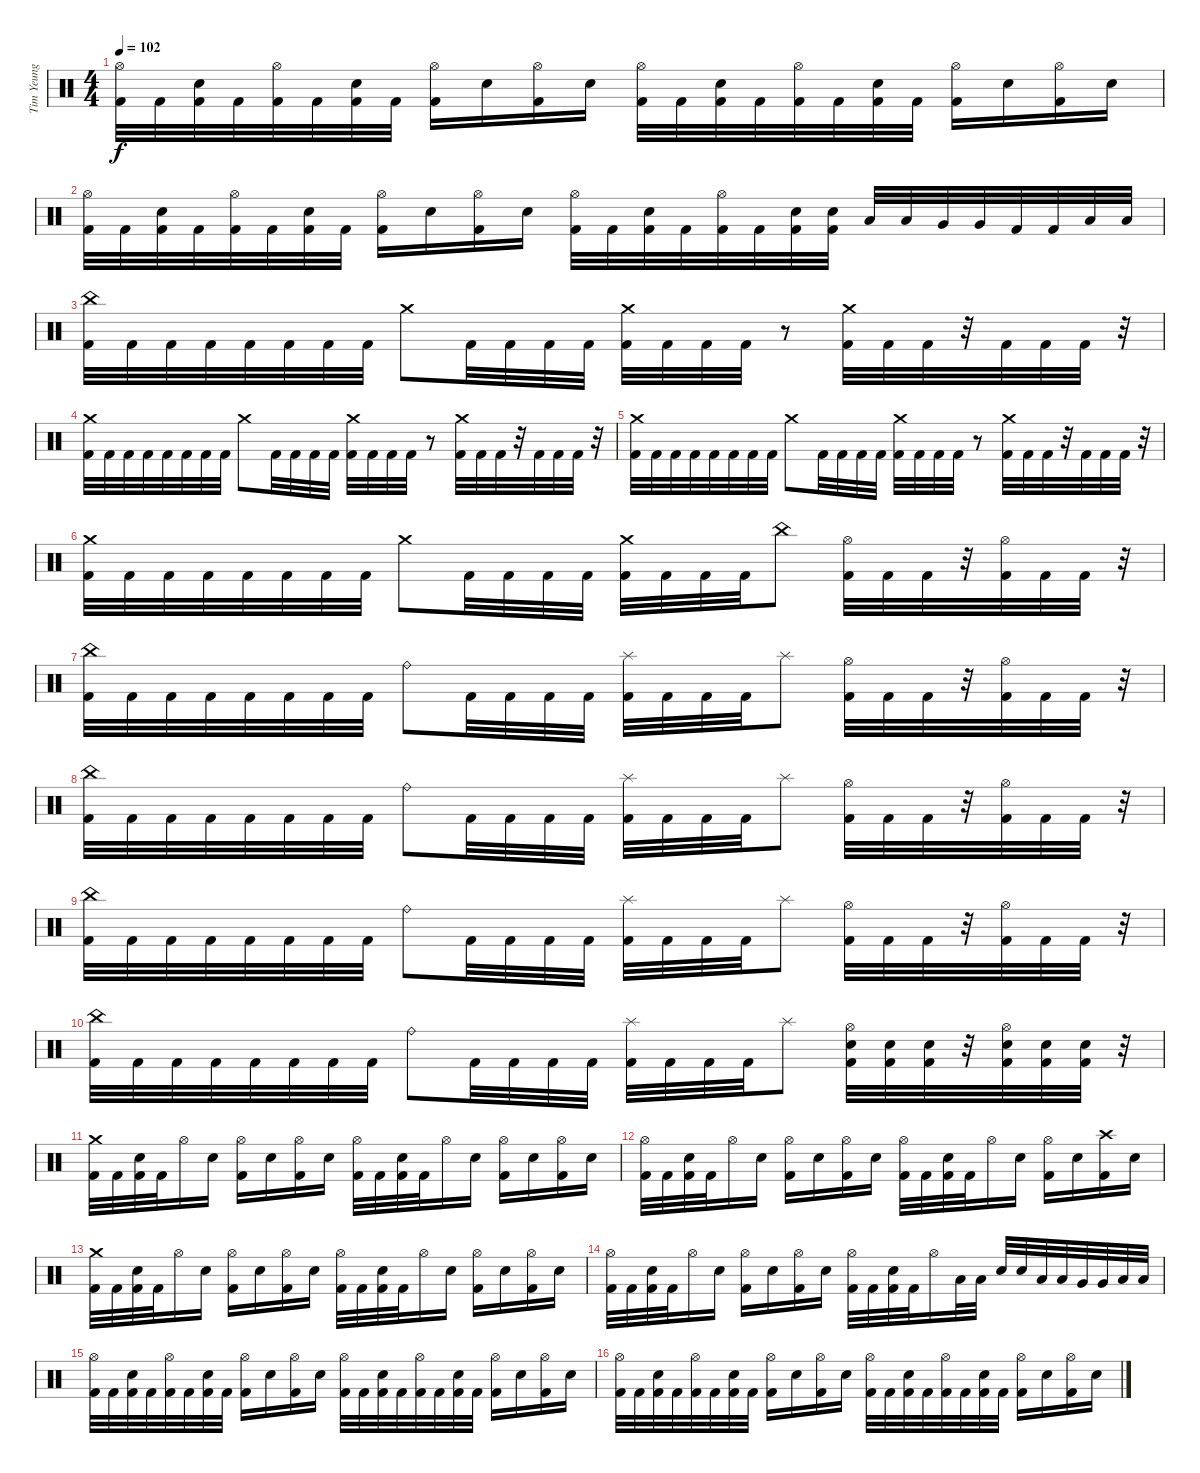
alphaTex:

\track ("Tim Yeung" "Tim Yeung") {instrument percussion}
\staff {score}
\articulation defaults
\ts (4 4)
\tempo 102
\clef neutral
\ks c
("Hi-Hat (open)" "Kick (hit) 2").32{dy f} "Kick (hit) 2".32 ("Electric Snare (hit)" "Kick (hit) 2").32 "Kick (hit) 2".32 ("Hi-Hat (open)" "Kick (hit) 2").32 "Kick (hit) 2".32 ("Electric Snare (hit)" "Kick (hit) 2").32 "Kick (hit) 2".32 ("Hi-Hat (open)" "Kick (hit) 2").16 "Electric Snare (hit)".16 ("Hi-Hat (open)" "Kick (hit) 2").16 "Electric Snare (hit)".16 ("Hi-Hat (open)" "Kick (hit) 2").32 "Kick (hit) 2".32 ("Electric Snare (hit)" "Kick (hit) 2").32 "Kick (hit) 2".32 ("Hi-Hat (open)" "Kick (hit) 2").32 "Kick (hit) 2".32 ("Electric Snare (hit)" "Kick (hit) 2").32 "Kick (hit) 2".32 ("Hi-Hat (open)" "Kick (hit) 2").16 "Electric Snare (hit)".16 ("Hi-Hat (open)" "Kick (hit) 2").16 "Electric Snare (hit)".16 |
("Hi-Hat (open)" "Kick (hit) 2").32 "Kick (hit) 2".32 ("Electric Snare (hit)" "Kick (hit) 2").32 "Kick (hit) 2".32 ("Hi-Hat (open)" "Kick (hit) 2").32 "Kick (hit) 2".32 ("Electric Snare (hit)" "Kick (hit) 2").32 "Kick (hit) 2".32 ("Hi-Hat (open)" "Kick (hit) 2").16 "Electric Snare (hit)".16 ("Hi-Hat (open)" "Kick (hit) 2").16 "Electric Snare (hit)".16 ("Hi-Hat (open)" "Kick (hit) 2").32 "Kick (hit) 2".32 ("Electric Snare (hit)" "Kick (hit) 2").32 "Kick (hit) 2".32 ("Hi-Hat (open)" "Kick (hit) 2").32 "Kick (hit) 2".32 ("Electric Snare (hit)" "Kick (hit) 2").32 ("Electric Snare (hit)" "Kick (hit) 2").32 "Low Tom (hit)".32 "Low Tom (hit)".32 "Very Low Tom (hit)".32 "Very Low Tom (hit)".32 "Kick (hit) 2".32 "Kick (hit) 2".32 "Low Floor Tom (hit)".32 "Low Floor Tom (hit)".32 |
("China (hit)" "Kick (hit) 2").32 "Kick (hit) 2".32 "Kick (hit) 2".32 "Kick (hit) 2".32 "Kick (hit) 2".32 "Kick (hit) 2".32 "Kick (hit) 2".32 "Kick (hit) 2".32 "Crash medium (hit)".8 "Kick (hit) 2".32 "Kick (hit) 2".32 "Kick (hit) 2".32 "Kick (hit) 2".32 ("Crash medium (hit)" "Kick (hit) 2").32 "Kick (hit) 2".32 "Kick (hit) 2".32 "Kick (hit) 2".32 r.8 ("Crash medium (hit)" "Kick (hit) 2").32 "Kick (hit) 2".32 "Kick (hit) 2".32 r.32 "Kick (hit) 2".32 "Kick (hit) 2".32 "Kick (hit) 2".32 r.32 |
("Crash medium (hit)" "Kick (hit) 2").32 "Kick (hit) 2".32 "Kick (hit) 2".32 "Kick (hit) 2".32 "Kick (hit) 2".32 "Kick (hit) 2".32 "Kick (hit) 2".32 "Kick (hit) 2".32 "Crash medium (hit)".8 "Kick (hit) 2".32 "Kick (hit) 2".32 "Kick (hit) 2".32 "Kick (hit) 2".32 ("Crash medium (hit)" "Kick (hit) 2").32 "Kick (hit) 2".32 "Kick (hit) 2".32 "Kick (hit) 2".32 r.8 ("Crash medium (hit)" "Kick (hit) 2").32 "Kick (hit) 2".32 "Kick (hit) 2".32 r.32 "Kick (hit) 2".32 "Kick (hit) 2".32 "Kick (hit) 2".32 r.32 |
("Crash medium (hit)" "Kick (hit) 2").32 "Kick (hit) 2".32 "Kick (hit) 2".32 "Kick (hit) 2".32 "Kick (hit) 2".32 "Kick (hit) 2".32 "Kick (hit) 2".32 "Kick (hit) 2".32 "Crash medium (hit)".8 "Kick (hit) 2".32 "Kick (hit) 2".32 "Kick (hit) 2".32 "Kick (hit) 2".32 ("Crash medium (hit)" "Kick (hit) 2").32 "Kick (hit) 2".32 "Kick (hit) 2".32 "Kick (hit) 2".32 r.8 ("Crash medium (hit)" "Kick (hit) 2").32 "Kick (hit) 2".32 "Kick (hit) 2".32 r.32 "Kick (hit) 2".32 "Kick (hit) 2".32 "Kick (hit) 2".32 r.32 |
("Crash medium (hit)" "Kick (hit) 2").32 "Kick (hit) 2".32 "Kick (hit) 2".32 "Kick (hit) 2".32 "Kick (hit) 2".32 "Kick (hit) 2".32 "Kick (hit) 2".32 "Kick (hit) 2".32 "Crash medium (hit)".8 "Kick (hit) 2".32 "Kick (hit) 2".32 "Kick (hit) 2".32 "Kick (hit) 2".32 ("Crash medium (hit)" "Kick (hit) 2").32 "Kick (hit) 2".32 "Kick (hit) 2".32 "Kick (hit) 2".32 "China (hit)".8 ("Hi-Hat (open)" "Kick (hit) 2").32 "Kick (hit) 2".32 "Kick (hit) 2".32 r.32 ("Hi-Hat (open)" "Kick (hit) 2").32 "Kick (hit) 2".32 "Kick (hit) 2".32 r.32 |
("China (hit)" "Kick (hit) 2").32 "Kick (hit) 2".32 "Kick (hit) 2".32 "Kick (hit) 2".32 "Kick (hit) 2".32 "Kick (hit) 2".32 "Kick (hit) 2".32 "Kick (hit) 2".32 "Ride (bell)".8 "Kick (hit) 2".32 "Kick (hit) 2".32 "Kick (hit) 2".32 "Kick (hit) 2".32 ("Splash (hit)" "Kick (hit) 2").32 "Kick (hit) 2".32 "Kick (hit) 2".32 "Kick (hit) 2".32 "Splash (hit)".8 ("Hi-Hat (open)" "Kick (hit) 2").32 "Kick (hit) 2".32 "Kick (hit) 2".32 r.32 ("Hi-Hat (open)" "Kick (hit) 2").32 "Kick (hit) 2".32 "Kick (hit) 2".32 r.32 |
("China (hit)" "Kick (hit) 2").32 "Kick (hit) 2".32 "Kick (hit) 2".32 "Kick (hit) 2".32 "Kick (hit) 2".32 "Kick (hit) 2".32 "Kick (hit) 2".32 "Kick (hit) 2".32 "Ride (bell)".8 "Kick (hit) 2".32 "Kick (hit) 2".32 "Kick (hit) 2".32 "Kick (hit) 2".32 ("Splash (hit)" "Kick (hit) 2").32 "Kick (hit) 2".32 "Kick (hit) 2".32 "Kick (hit) 2".32 "Splash (hit)".8 ("Hi-Hat (open)" "Kick (hit) 2").32 "Kick (hit) 2".32 "Kick (hit) 2".32 r.32 ("Hi-Hat (open)" "Kick (hit) 2").32 "Kick (hit) 2".32 "Kick (hit) 2".32 r.32 |
("China (hit)" "Kick (hit) 2").32 "Kick (hit) 2".32 "Kick (hit) 2".32 "Kick (hit) 2".32 "Kick (hit) 2".32 "Kick (hit) 2".32 "Kick (hit) 2".32 "Kick (hit) 2".32 "Ride (bell)".8 "Kick (hit) 2".32 "Kick (hit) 2".32 "Kick (hit) 2".32 "Kick (hit) 2".32 ("Splash (hit)" "Kick (hit) 2").32 "Kick (hit) 2".32 "Kick (hit) 2".32 "Kick (hit) 2".32 "Splash (hit)".8 ("Hi-Hat (open)" "Kick (hit) 2").32 "Kick (hit) 2".32 "Kick (hit) 2".32 r.32 ("Hi-Hat (open)" "Kick (hit) 2").32 "Kick (hit) 2".32 "Kick (hit) 2".32 r.32 |
("China (hit)" "Kick (hit) 2").32 "Kick (hit) 2".32 "Kick (hit) 2".32 "Kick (hit) 2".32 "Kick (hit) 2".32 "Kick (hit) 2".32 "Kick (hit) 2".32 "Kick (hit) 2".32 "Ride (bell)".8 "Kick (hit) 2".32 "Kick (hit) 2".32 "Kick (hit) 2".32 "Kick (hit) 2".32 ("Splash (hit)" "Kick (hit) 2").32 "Kick (hit) 2".32 "Kick (hit) 2".32 "Kick (hit) 2".32 "Splash (hit)".8 ("Hi-Hat (open)" "Electric Snare (hit)" "Kick (hit) 2").32 ("Electric Snare (hit)" "Kick (hit) 2").32 ("Electric Snare (hit)" "Kick (hit) 2").32 r.32 ("Hi-Hat (open)" "Electric Snare (hit)" "Kick (hit) 2").32 ("Electric Snare (hit)" "Kick (hit) 2").32 ("Electric Snare (hit)" "Kick (hit) 2").32 r.32 |
("Crash medium (hit)" "Kick (hit) 2").32 "Kick (hit) 2".32 ("Electric Snare (hit)" "Kick (hit) 2").32 "Kick (hit) 2".32 "Hi-Hat (open)".16 "Electric Snare (hit)".16 ("Hi-Hat (open)" "Kick (hit) 2").16 "Electric Snare (hit)".16 ("Hi-Hat (open)" "Kick (hit) 2").16 "Electric Snare (hit)".16 ("Hi-Hat (open)" "Kick (hit) 2").32 "Kick (hit) 2".32 ("Electric Snare (hit)" "Kick (hit) 2").32 "Kick (hit) 2".32 "Hi-Hat (open)".16 "Electric Snare (hit)".16 ("Hi-Hat (open)" "Kick (hit) 2").16 "Electric Snare (hit)".16 ("Hi-Hat (open)" "Kick (hit) 2").16 "Electric Snare (hit)".16 |
("Hi-Hat (open)" "Kick (hit) 2").32 "Kick (hit) 2".32 ("Electric Snare (hit)" "Kick (hit) 2").32 "Kick (hit) 2".32 "Hi-Hat (open)".16 "Electric Snare (hit)".16 ("Hi-Hat (open)" "Kick (hit) 2").16 "Electric Snare (hit)".16 ("Hi-Hat (open)" "Kick (hit) 2").16 "Electric Snare (hit)".16 ("Hi-Hat (open)" "Kick (hit) 2").32 "Kick (hit) 2".32 ("Electric Snare (hit)" "Kick (hit) 2").32 "Kick (hit) 2".32 "Hi-Hat (open)".16 "Electric Snare (hit)".16 ("Hi-Hat (open)" "Kick (hit) 2").16 "Electric Snare (hit)".16 ("Crash high (hit)" "Kick (hit) 2").16 "Electric Snare (hit)".16 |
("Crash medium (hit)" "Kick (hit) 2").32 "Kick (hit) 2".32 ("Electric Snare (hit)" "Kick (hit) 2").32 "Kick (hit) 2".32 "Hi-Hat (open)".16 "Electric Snare (hit)".16 ("Hi-Hat (open)" "Kick (hit) 2").16 "Electric Snare (hit)".16 ("Hi-Hat (open)" "Kick (hit) 2").16 "Electric Snare (hit)".16 ("Hi-Hat (open)" "Kick (hit) 2").32 "Kick (hit) 2".32 ("Electric Snare (hit)" "Kick (hit) 2").32 "Kick (hit) 2".32 "Hi-Hat (open)".16 "Electric Snare (hit)".16 ("Hi-Hat (open)" "Kick (hit) 2").16 "Electric Snare (hit)".16 ("Hi-Hat (open)" "Kick (hit) 2").16 "Electric Snare (hit)".16 |
("Hi-Hat (open)" "Kick (hit) 2").32 "Kick (hit) 2".32 ("Electric Snare (hit)" "Kick (hit) 2").32 "Kick (hit) 2".32 "Hi-Hat (open)".16 "Electric Snare (hit)".16 ("Hi-Hat (open)" "Kick (hit) 2").16 "Electric Snare (hit)".16 ("Hi-Hat (open)" "Kick (hit) 2").16 "Electric Snare (hit)".16 ("Hi-Hat (open)" "Kick (hit) 2").32 "Kick (hit) 2".32 ("Electric Snare (hit)" "Kick (hit) 2").32 "Kick (hit) 2".32 "Hi-Hat (open)".16 "Low Tom (hit)".32 "Low Tom (hit)".32 "Electric Snare (hit)".32 "Electric Snare (hit)".32 "Low Tom (hit)".32 "Low Tom (hit)".32 "Very Low Tom (hit)".32 "Very Low Tom (hit)".32 "Low Floor Tom (hit)".32 "Low Floor Tom (hit)".32 |
("Hi-Hat (open)" "Kick (hit) 2").32 "Kick (hit) 2".32 ("Electric Snare (hit)" "Kick (hit) 2").32 "Kick (hit) 2".32 ("Hi-Hat (open)" "Kick (hit) 2").32 "Kick (hit) 2".32 ("Electric Snare (hit)" "Kick (hit) 2").32 "Kick (hit) 2".32 ("Hi-Hat (open)" "Kick (hit) 2").16 "Electric Snare (hit)".16 ("Hi-Hat (open)" "Kick (hit) 2").16 "Electric Snare (hit)".16 ("Hi-Hat (open)" "Kick (hit) 2").32 "Kick (hit) 2".32 ("Electric Snare (hit)" "Kick (hit) 2").32 "Kick (hit) 2".32 ("Hi-Hat (open)" "Kick (hit) 2").32 "Kick (hit) 2".32 ("Electric Snare (hit)" "Kick (hit) 2").32 "Kick (hit) 2".32 ("Hi-Hat (open)" "Kick (hit) 2").16 "Electric Snare (hit)".16 ("Hi-Hat (open)" "Kick (hit) 2").16 "Electric Snare (hit)".16 |
("Hi-Hat (open)" "Kick (hit) 2").32 "Kick (hit) 2".32 ("Electric Snare (hit)" "Kick (hit) 2").32 "Kick (hit) 2".32 ("Hi-Hat (open)" "Kick (hit) 2").32 "Kick (hit) 2".32 ("Electric Snare (hit)" "Kick (hit) 2").32 "Kick (hit) 2".32 ("Hi-Hat (open)" "Kick (hit) 2").16 "Electric Snare (hit)".16 ("Hi-Hat (open)" "Kick (hit) 2").16 "Electric Snare (hit)".16 ("Hi-Hat (open)" "Kick (hit) 2").32 "Kick (hit) 2".32 ("Electric Snare (hit)" "Kick (hit) 2").32 "Kick (hit) 2".32 ("Hi-Hat (open)" "Kick (hit) 2").32 "Kick (hit) 2".32 ("Electric Snare (hit)" "Kick (hit) 2").32 "Kick (hit) 2".32 ("Hi-Hat (open)" "Kick (hit) 2").16 "Electric Snare (hit)".16 ("Hi-Hat (open)" "Kick (hit) 2").16 "Electric Snare (hit)".16
